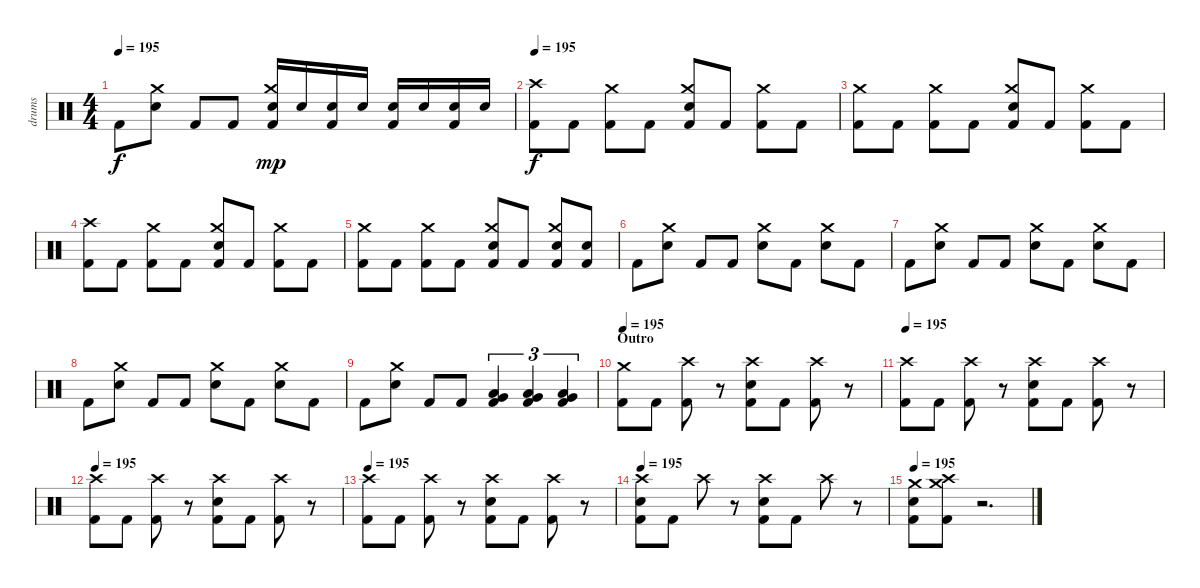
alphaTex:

\track ("drums" "drums") {instrument percussion}
\staff {score}
\articulation defaults
\ts (4 4)
\tempo 195
\clef neutral
\ks c "Kick (hit) 2".8{dy f}
("Crash medium (hit)" "Electric Snare (hit)").8 "Kick (hit) 2".8 "Kick (hit) 2".8 ("Crash medium (hit)" "Electric Snare (hit)" "Kick (hit) 2").16{dy mp} "Electric Snare (hit)".16 ("Electric Snare (hit)" "Kick (hit) 2").16 "Electric Snare (hit)".16 ("Electric Snare (hit)" "Kick (hit) 2").16 "Electric Snare (hit)".16 ("Electric Snare (hit)" "Kick (hit) 2").16 "Electric Snare (hit)".16 |
\tempo 195
("Crash high (hit)" "Kick (hit) 2").8{dy f} "Kick (hit) 2".8 ("Crash medium (hit)" "Kick (hit) 2").8 "Kick (hit) 2".8 ("Crash medium (hit)" "Electric Snare (hit)" "Kick (hit) 2").8 "Kick (hit) 2".8 ("Crash medium (hit)" "Kick (hit) 2").8 "Kick (hit) 2".8 |
("Crash medium (hit)" "Kick (hit) 2").8 "Kick (hit) 2".8 ("Crash medium (hit)" "Kick (hit) 2").8 "Kick (hit) 2".8 ("Crash medium (hit)" "Electric Snare (hit)" "Kick (hit) 2").8 "Kick (hit) 2".8 ("Crash medium (hit)" "Kick (hit) 2").8 "Kick (hit) 2".8 |
("Crash high (hit)" "Kick (hit) 2").8 "Kick (hit) 2".8 ("Crash medium (hit)" "Kick (hit) 2").8 "Kick (hit) 2".8 ("Crash medium (hit)" "Electric Snare (hit)" "Kick (hit) 2").8 "Kick (hit) 2".8 ("Crash medium (hit)" "Kick (hit) 2").8 "Kick (hit) 2".8 |
("Crash medium (hit)" "Kick (hit) 2").8 "Kick (hit) 2".8 ("Crash medium (hit)" "Kick (hit) 2").8 "Kick (hit) 2".8 ("Crash medium (hit)" "Electric Snare (hit)" "Kick (hit) 2").8 "Kick (hit) 2".8 ("Crash medium (hit)" "Electric Snare (hit)" "Kick (hit) 2").8 ("Electric Snare (hit)" "Kick (hit) 2").8 |
"Kick (hit) 2".8 ("Crash medium (hit)" "Electric Snare (hit)").8 "Kick (hit) 2".8 "Kick (hit) 2".8 ("Crash medium (hit)" "Electric Snare (hit)").8 "Kick (hit) 2".8 ("Crash medium (hit)" "Electric Snare (hit)").8 "Kick (hit) 2".8 |
"Kick (hit) 2".8 ("Crash medium (hit)" "Electric Snare (hit)").8 "Kick (hit) 2".8 "Kick (hit) 2".8 ("Crash medium (hit)" "Electric Snare (hit)").8 "Kick (hit) 2".8 ("Crash medium (hit)" "Electric Snare (hit)").8 "Kick (hit) 2".8 |
"Kick (hit) 2".8 ("Crash medium (hit)" "Electric Snare (hit)").8 "Kick (hit) 2".8 "Kick (hit) 2".8 ("Crash medium (hit)" "Electric Snare (hit)").8 "Kick (hit) 2".8 ("Crash medium (hit)" "Electric Snare (hit)").8 "Kick (hit) 2".8 |
"Kick (hit) 2".8 ("Crash medium (hit)" "Electric Snare (hit)").8 "Kick (hit) 2".8 "Kick (hit) 2".8 ("Very Low Tom (hit)" "Low Tom (hit)" "Kick (hit) 2").4{tu (3 2)} ("Very Low Tom (hit)" "Low Tom (hit)" "Kick (hit) 2").4{tu (3 2)} ("Very Low Tom (hit)" "Low Tom (hit)" "Kick (hit) 2").4{tu (3 2)} |
\section ("" "Outro")
\tempo 195
("Crash medium (hit)" "Kick (hit) 2").8 "Kick (hit) 2".8 ("Crash high (hit)" "Kick (hit) 2").8 r.8 ("Crash high (hit)" "Electric Snare (hit)" "Kick (hit) 2").8 "Kick (hit) 2".8 ("Crash high (hit)" "Kick (hit) 2").8 r.8 |
\tempo 195
("Crash high (hit)" "Kick (hit) 2").8 "Kick (hit) 2".8 ("Crash high (hit)" "Kick (hit) 2").8 r.8 ("Crash high (hit)" "Electric Snare (hit)" "Kick (hit) 2").8 "Kick (hit) 2".8 ("Crash high (hit)" "Kick (hit) 2").8 r.8 |
\tempo 195
("Crash high (hit)" "Kick (hit) 2").8 "Kick (hit) 2".8 ("Crash high (hit)" "Kick (hit) 2").8 r.8 ("Crash high (hit)" "Electric Snare (hit)" "Kick (hit) 2").8 "Kick (hit) 2".8 ("Crash high (hit)" "Kick (hit) 2").8 r.8 |
\tempo 195
("Crash high (hit)" "Kick (hit) 2").8 "Kick (hit) 2".8 ("Crash high (hit)" "Kick (hit) 2").8 r.8 ("Crash high (hit)" "Electric Snare (hit)" "Kick (hit) 2").8 "Kick (hit) 2".8 ("Crash high (hit)" "Kick (hit) 2").8 r.8 |
\tempo 195
("Crash high (hit)" "Electric Snare (hit)" "Kick (hit) 2").8 "Kick (hit) 2".8 "Crash high (hit)".8 r.8 ("Crash high (hit)" "Electric Snare (hit)" "Kick (hit) 2").8 "Kick (hit) 2".8 "Crash high (hit)".8 r.8 |
\tempo 195
("Crash medium (hit)" "Electric Snare (hit)" "Kick (hit) 2").8 ("Crash medium (hit)" "Crash high (hit)" "Kick (hit) 2").8 r.2{d}
